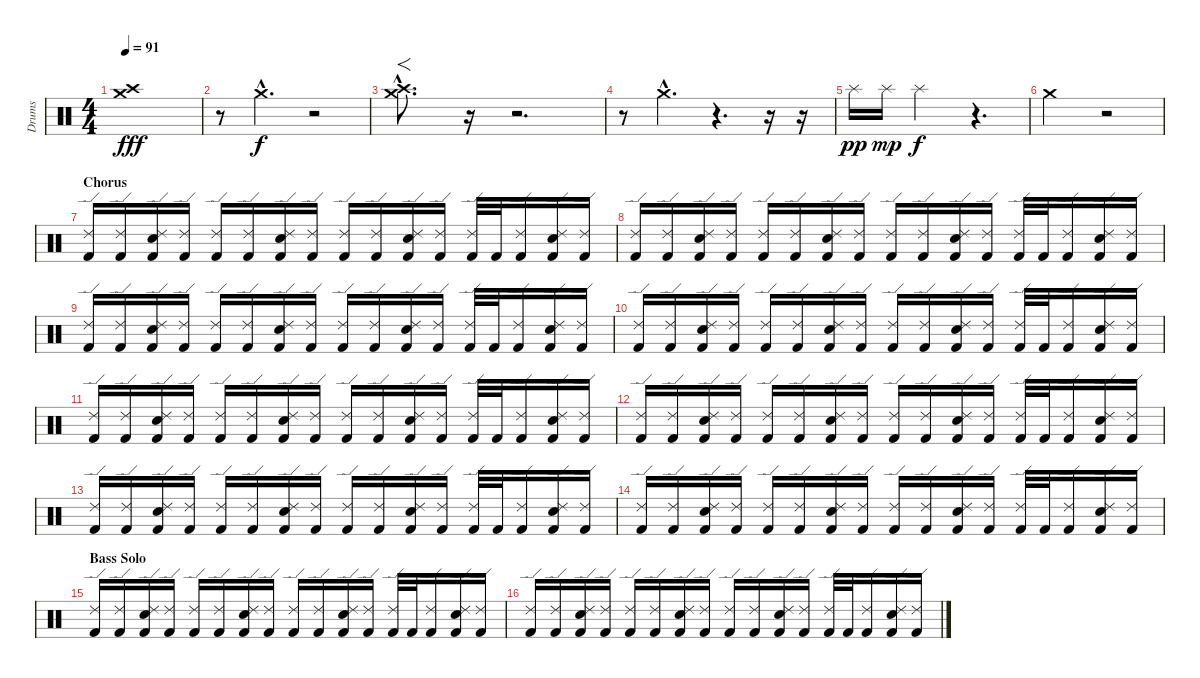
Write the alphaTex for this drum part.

\track ("Drums" "Drums") {instrument percussion}
\staff {score}
\articulation defaults
\ts (4 4)
\tempo 91
\clef neutral
\ks c
("Crash high (hit)" "Crash medium (hit)").1{dy fff} |
r.8 "Crash medium (hit)"{hac}.4{d dy f} r.2 |
("Crash high (hit)"{hac} "Crash medium (hit)"{hac}).8{f d} r.16 r.2{d} |
r.8 "Crash medium (hit)"{hac}.4{d} r.4{d} r.16 r.16 |
"Splash (hit)".16{dy pp} "Splash (hit)".16{dy mp} "Splash (hit)".2{dy f} r.4{d} |
"Crash medium (hit)".2 r.2 |
\section ("" "Chorus")
("Ride (edge) 2" "Kick (hit) 2").16 ("Ride (edge) 2" "Kick (hit) 2").16 ("Ride (edge) 2" "Snare (hit) 2" "Kick (hit) 2").16 ("Ride (edge) 2" "Kick (hit) 2").16 ("Ride (edge) 2" "Kick (hit) 2").16 ("Ride (edge) 2" "Kick (hit) 2").16 ("Ride (edge) 2" "Snare (hit) 2" "Kick (hit) 2").16 ("Ride (edge) 2" "Kick (hit) 2").16 ("Ride (edge) 2" "Kick (hit) 2").16 ("Ride (edge) 2" "Kick (hit) 2").16 ("Ride (edge) 2" "Snare (hit) 2" "Kick (hit) 2").16 ("Ride (edge) 2" "Kick (hit) 2").16 ("Ride (edge) 2" "Kick (hit) 2").32 "Kick (hit) 2".32 ("Ride (edge) 2" "Kick (hit) 2").16 ("Ride (edge) 2" "Snare (hit) 2" "Kick (hit) 2").16 ("Ride (edge) 2" "Kick (hit) 2").16 |
("Ride (edge) 2" "Kick (hit) 2").16 ("Ride (edge) 2" "Kick (hit) 2").16 ("Ride (edge) 2" "Snare (hit) 2" "Kick (hit) 2").16 ("Ride (edge) 2" "Kick (hit) 2").16 ("Ride (edge) 2" "Kick (hit) 2").16 ("Ride (edge) 2" "Kick (hit) 2").16 ("Ride (edge) 2" "Snare (hit) 2" "Kick (hit) 2").16 ("Ride (edge) 2" "Kick (hit) 2").16 ("Ride (edge) 2" "Kick (hit) 2").16 ("Ride (edge) 2" "Kick (hit) 2").16 ("Ride (edge) 2" "Snare (hit) 2" "Kick (hit) 2").16 ("Ride (edge) 2" "Kick (hit) 2").16 ("Ride (edge) 2" "Kick (hit) 2").32 "Kick (hit) 2".32 ("Ride (edge) 2" "Kick (hit) 2").16 ("Ride (edge) 2" "Snare (hit) 2" "Kick (hit) 2").16 ("Ride (edge) 2" "Kick (hit) 2").16 |
("Ride (edge) 2" "Kick (hit) 2").16 ("Ride (edge) 2" "Kick (hit) 2").16 ("Ride (edge) 2" "Snare (hit) 2" "Kick (hit) 2").16 ("Ride (edge) 2" "Kick (hit) 2").16 ("Ride (edge) 2" "Kick (hit) 2").16 ("Ride (edge) 2" "Kick (hit) 2").16 ("Ride (edge) 2" "Snare (hit) 2" "Kick (hit) 2").16 ("Ride (edge) 2" "Kick (hit) 2").16 ("Ride (edge) 2" "Kick (hit) 2").16 ("Ride (edge) 2" "Kick (hit) 2").16 ("Ride (edge) 2" "Snare (hit) 2" "Kick (hit) 2").16 ("Ride (edge) 2" "Kick (hit) 2").16 ("Ride (edge) 2" "Kick (hit) 2").32 "Kick (hit) 2".32 ("Ride (edge) 2" "Kick (hit) 2").16 ("Ride (edge) 2" "Snare (hit) 2" "Kick (hit) 2").16 ("Ride (edge) 2" "Kick (hit) 2").16 |
("Ride (edge) 2" "Kick (hit) 2").16 ("Ride (edge) 2" "Kick (hit) 2").16 ("Ride (edge) 2" "Snare (hit) 2" "Kick (hit) 2").16 ("Ride (edge) 2" "Kick (hit) 2").16 ("Ride (edge) 2" "Kick (hit) 2").16 ("Ride (edge) 2" "Kick (hit) 2").16 ("Ride (edge) 2" "Snare (hit) 2" "Kick (hit) 2").16 ("Ride (edge) 2" "Kick (hit) 2").16 ("Ride (edge) 2" "Kick (hit) 2").16 ("Ride (edge) 2" "Kick (hit) 2").16 ("Ride (edge) 2" "Snare (hit) 2" "Kick (hit) 2").16 ("Ride (edge) 2" "Kick (hit) 2").16 ("Ride (edge) 2" "Kick (hit) 2").32 "Kick (hit) 2".32 ("Ride (edge) 2" "Kick (hit) 2").16 ("Ride (edge) 2" "Snare (hit) 2" "Kick (hit) 2").16 ("Ride (edge) 2" "Kick (hit) 2").16 |
("Ride (edge) 2" "Kick (hit) 2").16 ("Ride (edge) 2" "Kick (hit) 2").16 ("Ride (edge) 2" "Snare (hit) 2" "Kick (hit) 2").16 ("Ride (edge) 2" "Kick (hit) 2").16 ("Ride (edge) 2" "Kick (hit) 2").16 ("Ride (edge) 2" "Kick (hit) 2").16 ("Ride (edge) 2" "Snare (hit) 2" "Kick (hit) 2").16 ("Ride (edge) 2" "Kick (hit) 2").16 ("Ride (edge) 2" "Kick (hit) 2").16 ("Ride (edge) 2" "Kick (hit) 2").16 ("Ride (edge) 2" "Snare (hit) 2" "Kick (hit) 2").16 ("Ride (edge) 2" "Kick (hit) 2").16 ("Ride (edge) 2" "Kick (hit) 2").32 "Kick (hit) 2".32 ("Ride (edge) 2" "Kick (hit) 2").16 ("Ride (edge) 2" "Snare (hit) 2" "Kick (hit) 2").16 ("Ride (edge) 2" "Kick (hit) 2").16 |
("Ride (edge) 2" "Kick (hit) 2").16 ("Ride (edge) 2" "Kick (hit) 2").16 ("Ride (edge) 2" "Snare (hit) 2" "Kick (hit) 2").16 ("Ride (edge) 2" "Kick (hit) 2").16 ("Ride (edge) 2" "Kick (hit) 2").16 ("Ride (edge) 2" "Kick (hit) 2").16 ("Ride (edge) 2" "Snare (hit) 2" "Kick (hit) 2").16 ("Ride (edge) 2" "Kick (hit) 2").16 ("Ride (edge) 2" "Kick (hit) 2").16 ("Ride (edge) 2" "Kick (hit) 2").16 ("Ride (edge) 2" "Snare (hit) 2" "Kick (hit) 2").16 ("Ride (edge) 2" "Kick (hit) 2").16 ("Ride (edge) 2" "Kick (hit) 2").32 "Kick (hit) 2".32 ("Ride (edge) 2" "Kick (hit) 2").16 ("Ride (edge) 2" "Snare (hit) 2" "Kick (hit) 2").16 ("Ride (edge) 2" "Kick (hit) 2").16 |
("Ride (edge) 2" "Kick (hit) 2").16 ("Ride (edge) 2" "Kick (hit) 2").16 ("Ride (edge) 2" "Snare (hit) 2" "Kick (hit) 2").16 ("Ride (edge) 2" "Kick (hit) 2").16 ("Ride (edge) 2" "Kick (hit) 2").16 ("Ride (edge) 2" "Kick (hit) 2").16 ("Ride (edge) 2" "Snare (hit) 2" "Kick (hit) 2").16 ("Ride (edge) 2" "Kick (hit) 2").16 ("Ride (edge) 2" "Kick (hit) 2").16 ("Ride (edge) 2" "Kick (hit) 2").16 ("Ride (edge) 2" "Snare (hit) 2" "Kick (hit) 2").16 ("Ride (edge) 2" "Kick (hit) 2").16 ("Ride (edge) 2" "Kick (hit) 2").32 "Kick (hit) 2".32 ("Ride (edge) 2" "Kick (hit) 2").16 ("Ride (edge) 2" "Snare (hit) 2" "Kick (hit) 2").16 ("Ride (edge) 2" "Kick (hit) 2").16 |
("Ride (edge) 2" "Kick (hit) 2").16 ("Ride (edge) 2" "Kick (hit) 2").16 ("Ride (edge) 2" "Snare (hit) 2" "Kick (hit) 2").16 ("Ride (edge) 2" "Kick (hit) 2").16 ("Ride (edge) 2" "Kick (hit) 2").16 ("Ride (edge) 2" "Kick (hit) 2").16 ("Ride (edge) 2" "Snare (hit) 2" "Kick (hit) 2").16 ("Ride (edge) 2" "Kick (hit) 2").16 ("Ride (edge) 2" "Kick (hit) 2").16 ("Ride (edge) 2" "Kick (hit) 2").16 ("Ride (edge) 2" "Snare (hit) 2" "Kick (hit) 2").16 ("Ride (edge) 2" "Kick (hit) 2").16 ("Ride (edge) 2" "Kick (hit) 2").32 "Kick (hit) 2".32 ("Ride (edge) 2" "Kick (hit) 2").16 ("Ride (edge) 2" "Snare (hit) 2" "Kick (hit) 2").16 ("Ride (edge) 2" "Kick (hit) 2").16 |
\section ("" "Bass Solo")
("Ride (edge) 2" "Kick (hit) 2").16 ("Ride (edge) 2" "Kick (hit) 2").16 ("Ride (edge) 2" "Snare (hit) 2" "Kick (hit) 2").16 ("Ride (edge) 2" "Kick (hit) 2").16 ("Ride (edge) 2" "Kick (hit) 2").16 ("Ride (edge) 2" "Kick (hit) 2").16 ("Ride (edge) 2" "Snare (hit) 2" "Kick (hit) 2").16 ("Ride (edge) 2" "Kick (hit) 2").16 ("Ride (edge) 2" "Kick (hit) 2").16 ("Ride (edge) 2" "Kick (hit) 2").16 ("Ride (edge) 2" "Snare (hit) 2" "Kick (hit) 2").16 ("Ride (edge) 2" "Kick (hit) 2").16 ("Ride (edge) 2" "Kick (hit) 2").32 "Kick (hit) 2".32 ("Ride (edge) 2" "Kick (hit) 2").16 ("Ride (edge) 2" "Snare (hit) 2" "Kick (hit) 2").16 ("Ride (edge) 2" "Kick (hit) 2").16 |
("Ride (edge) 2" "Kick (hit) 2").16 ("Ride (edge) 2" "Kick (hit) 2").16 ("Ride (edge) 2" "Snare (hit) 2" "Kick (hit) 2").16 ("Ride (edge) 2" "Kick (hit) 2").16 ("Ride (edge) 2" "Kick (hit) 2").16 ("Ride (edge) 2" "Kick (hit) 2").16 ("Ride (edge) 2" "Snare (hit) 2" "Kick (hit) 2").16 ("Ride (edge) 2" "Kick (hit) 2").16 ("Ride (edge) 2" "Kick (hit) 2").16 ("Ride (edge) 2" "Kick (hit) 2").16 ("Ride (edge) 2" "Snare (hit) 2" "Kick (hit) 2").16 ("Ride (edge) 2" "Kick (hit) 2").16 ("Ride (edge) 2" "Kick (hit) 2").32 "Kick (hit) 2".32 ("Ride (edge) 2" "Kick (hit) 2").16 ("Ride (edge) 2" "Snare (hit) 2" "Kick (hit) 2").16 ("Ride (edge) 2" "Kick (hit) 2").16
